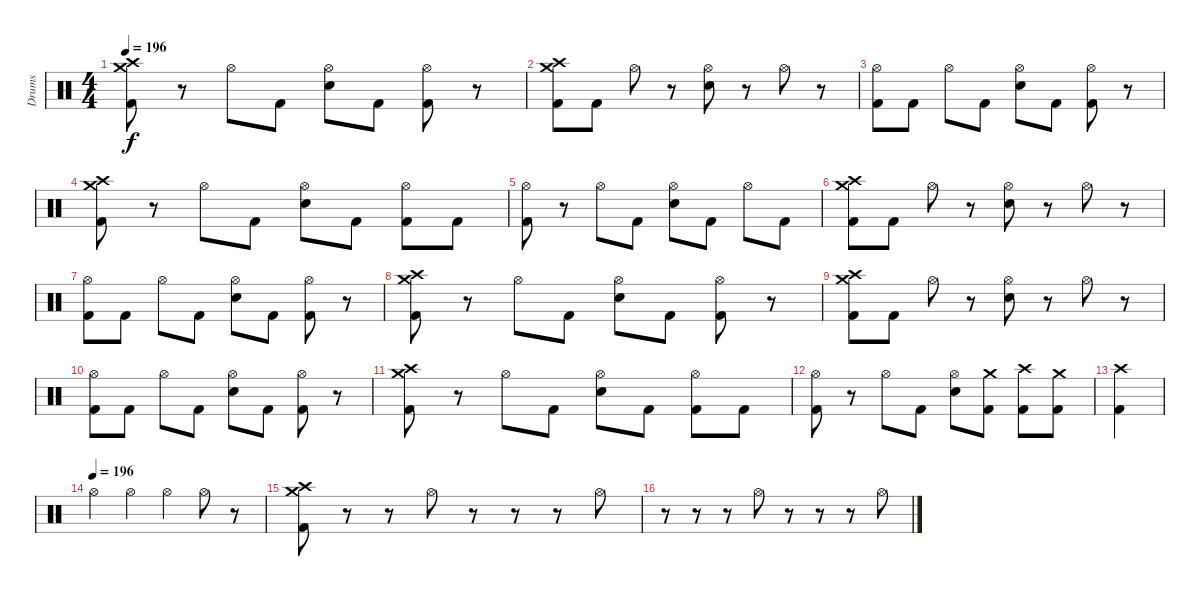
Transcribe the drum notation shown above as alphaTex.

\track ("Drums" "Drums") {instrument percussion}
\staff {score}
\articulation defaults
\ts (4 4)
\tempo 196
\clef neutral
\ks c
("Crash high (hit)" "Crash medium (hit)" "Kick (hit) 2").8{dy f} r.8 "Hi-Hat (open)".8 "Kick (hit) 2".8 ("Hi-Hat (open)" "Snare (hit) 2").8 "Kick (hit) 2".8 ("Hi-Hat (open)" "Kick (hit) 2").8 r.8 |
("Crash high (hit)" "Crash medium (hit)" "Kick (hit) 2").8 "Kick (hit) 2".8 "Hi-Hat (open)".8 r.8 ("Hi-Hat (open)" "Snare (hit) 2").8 r.8 "Hi-Hat (open)".8 r.8 |
("Hi-Hat (open)" "Kick (hit) 2").8 "Kick (hit) 2".8 "Hi-Hat (open)".8 "Kick (hit) 2".8 ("Hi-Hat (open)" "Snare (hit) 2").8 "Kick (hit) 2".8 ("Hi-Hat (open)" "Kick (hit) 2").8 r.8 |
("Crash high (hit)" "Crash medium (hit)" "Kick (hit) 2").8 r.8 "Hi-Hat (open)".8 "Kick (hit) 2".8 ("Hi-Hat (open)" "Snare (hit) 2").8 "Kick (hit) 2".8 ("Hi-Hat (open)" "Kick (hit) 2").8 "Kick (hit) 2".8 |
("Hi-Hat (open)" "Kick (hit) 2").8 r.8 "Hi-Hat (open)".8 "Kick (hit) 2".8 ("Hi-Hat (open)" "Snare (hit) 2").8 "Kick (hit) 2".8 "Hi-Hat (open)".8 "Kick (hit) 2".8 |
("Crash high (hit)" "Crash medium (hit)" "Kick (hit) 2").8 "Kick (hit) 2".8 "Hi-Hat (open)".8 r.8 ("Hi-Hat (open)" "Snare (hit) 2").8 r.8 "Hi-Hat (open)".8 r.8 |
("Hi-Hat (open)" "Kick (hit) 2").8 "Kick (hit) 2".8 "Hi-Hat (open)".8 "Kick (hit) 2".8 ("Hi-Hat (open)" "Snare (hit) 2").8 "Kick (hit) 2".8 ("Hi-Hat (open)" "Kick (hit) 2").8 r.8 |
("Crash high (hit)" "Crash medium (hit)" "Kick (hit) 2").8 r.8 "Hi-Hat (open)".8 "Kick (hit) 2".8 ("Hi-Hat (open)" "Snare (hit) 2").8 "Kick (hit) 2".8 ("Hi-Hat (open)" "Kick (hit) 2").8 r.8 |
("Crash high (hit)" "Crash medium (hit)" "Kick (hit) 2").8 "Kick (hit) 2".8 "Hi-Hat (open)".8 r.8 ("Hi-Hat (open)" "Snare (hit) 2").8 r.8 "Hi-Hat (open)".8 r.8 |
("Hi-Hat (open)" "Kick (hit) 2").8 "Kick (hit) 2".8 "Hi-Hat (open)".8 "Kick (hit) 2".8 ("Hi-Hat (open)" "Snare (hit) 2").8 "Kick (hit) 2".8 ("Hi-Hat (open)" "Kick (hit) 2").8 r.8 |
("Crash high (hit)" "Crash medium (hit)" "Kick (hit) 2").8 r.8 "Hi-Hat (open)".8 "Kick (hit) 2".8 ("Hi-Hat (open)" "Snare (hit) 2").8 "Kick (hit) 2".8 ("Hi-Hat (open)" "Kick (hit) 2").8 "Kick (hit) 2".8 |
("Hi-Hat (open)" "Kick (hit) 2").8 r.8 "Hi-Hat (open)".8 "Kick (hit) 2".8 ("Hi-Hat (open)" "Snare (hit) 2").8 ("Crash medium (hit)" "Kick (hit) 2").8 ("Crash high (hit)" "Kick (hit) 2").8 ("Crash medium (hit)" "Kick (hit) 2").8 |
("Crash high (hit)" "Kick (hit) 2").4 |
\tempo (196)
"Hi-Hat (open)".4 "Hi-Hat (open)".4 "Hi-Hat (open)".4 "Hi-Hat (open)".8 r.8 |
("Crash high (hit)" "Crash medium (hit)" "Kick (hit) 2").8 r.8 r.8 "Hi-Hat (open)".8 r.8 r.8 r.8 "Hi-Hat (open)".8 |
r.8 r.8 r.8 "Hi-Hat (open)".8 r.8 r.8 r.8 "Hi-Hat (open)".8
